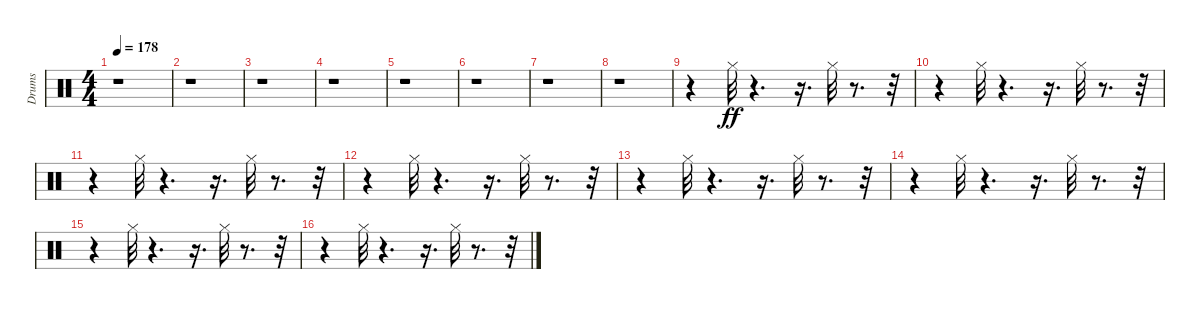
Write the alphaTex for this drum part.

\track ("Drums" "Drums") {instrument percussion}
\staff {score}
\articulation defaults
\ts (4 4)
\tempo 178
\clef neutral
\ks c
r.1{dy ff} |
r.1 |
r.1 |
r.1 |
r.1 |
r.1 |
r.1 |
r.1 |
r.4 "Hi-Hat (closed)".32 r.4{d} r.16{d} "Hi-Hat (closed)".32 r.8{d} r.32 |
r.4 "Hi-Hat (closed)".32 r.4{d} r.16{d} "Hi-Hat (closed)".32 r.8{d} r.32 |
r.4 "Hi-Hat (closed)".32 r.4{d} r.16{d} "Hi-Hat (closed)".32 r.8{d} r.32 |
r.4 "Hi-Hat (closed)".32 r.4{d} r.16{d} "Hi-Hat (closed)".32 r.8{d} r.32 |
r.4 "Hi-Hat (closed)".32 r.4{d} r.16{d} "Hi-Hat (closed)".32 r.8{d} r.32 |
r.4 "Hi-Hat (closed)".32 r.4{d} r.16{d} "Hi-Hat (closed)".32 r.8{d} r.32 |
r.4 "Hi-Hat (closed)".32 r.4{d} r.16{d} "Hi-Hat (closed)".32 r.8{d} r.32 |
r.4 "Hi-Hat (closed)".32 r.4{d} r.16{d} "Hi-Hat (closed)".32 r.8{d} r.32
